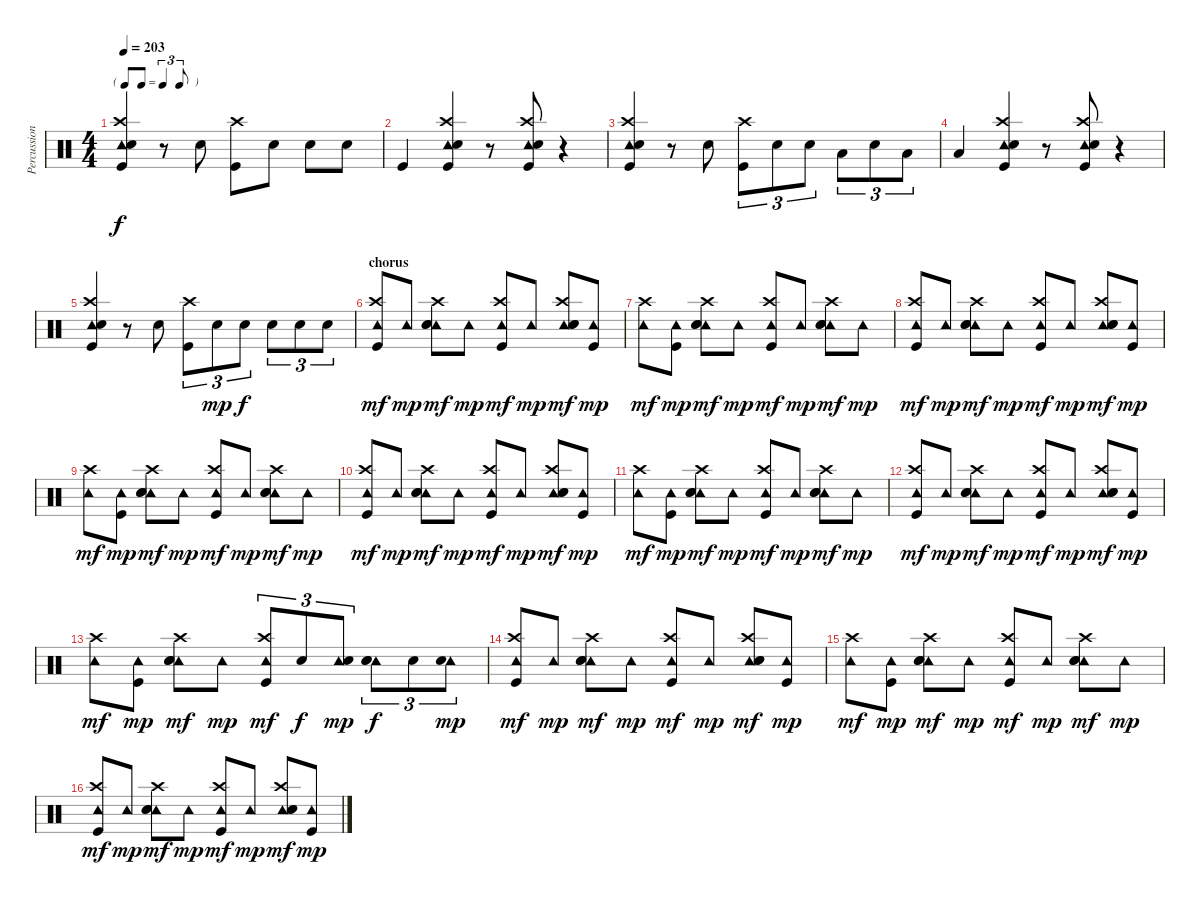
\track ("Percussion" "Percussion") {instrument percussion}
\staff {score}
\articulation defaults
\ts (4 4)
\tf triplet8th
\tempo 203
\clef neutral
\ks c
("Tambourine (hit)" "Crash high (hit)" "Snare (hit) 2" "Kick (hit)").4{dy f} r.8 "Snare (hit) 2".8 ("Crash high (hit)" "Kick (hit)").8 "Snare (hit) 2".8 "Snare (hit) 2".8 "Snare (hit) 2".8 |
"Kick (hit)".4 ("Tambourine (hit)" "Crash high (hit)" "Snare (hit) 2" "Kick (hit)").4 r.8 ("Tambourine (hit)" "Crash high (hit)" "Snare (hit) 2" "Kick (hit)").8 r.4 |
("Tambourine (hit)" "Crash high (hit)" "Snare (hit) 2" "Kick (hit)").4 r.8 "Snare (hit) 2".8 ("Crash high (hit)" "Kick (hit)").8{tu (3 2)} "Snare (hit) 2".8{tu (3 2)} "Snare (hit) 2".8{tu (3 2)} "Low Tom (hit)".8{tu (3 2)} "Snare (hit) 2".8{tu (3 2)} "Low Tom (hit)".8{tu (3 2)} |
"Low Floor Tom (hit)".4 ("Tambourine (hit)" "Crash high (hit)" "Snare (hit) 2" "Kick (hit)").4 r.8 ("Tambourine (hit)" "Crash high (hit)" "Snare (hit) 2" "Kick (hit)").8 r.4 |
("Tambourine (hit)" "Crash high (hit)" "Snare (hit) 2" "Kick (hit)").4 r.8 "Snare (hit) 2".8 ("Crash high (hit)" "Kick (hit)").8{tu (3 2)} "Snare (hit) 2".8{tu (3 2) dy mp} "Snare (hit) 2".8{tu (3 2) dy f} "Snare (hit) 2".8{tu (3 2)} "Snare (hit) 2".8{tu (3 2)} "Snare (hit) 2".8{tu (3 2)} |
\section ("" "chorus")
("Tambourine (hit)" "Crash high (hit)" "Kick (hit)").8{dy mf} "Tambourine (hit)".8{dy mp} ("Tambourine (hit)" "Crash high (hit)" "Hand Clap (hit)" "Snare (hit) 2").8{dy mf} "Tambourine (hit)".8{dy mp} ("Tambourine (hit)" "Crash high (hit)" "Kick (hit)").8{dy mf} "Tambourine (hit)".8{dy mp} ("Tambourine (hit)" "Crash high (hit)" "Hand Clap (hit)" "Snare (hit) 2").8{dy mf} ("Tambourine (hit)" "Kick (hit)").8{dy mp} |
("Tambourine (hit)" "Crash high (hit)").8{dy mf} ("Tambourine (hit)" "Kick (hit)").8{dy mp} ("Tambourine (hit)" "Crash high (hit)" "Hand Clap (hit)" "Snare (hit) 2").8{dy mf} "Tambourine (hit)".8{dy mp} ("Tambourine (hit)" "Crash high (hit)" "Kick (hit)").8{dy mf} "Tambourine (hit)".8{dy mp} ("Tambourine (hit)" "Crash high (hit)" "Hand Clap (hit)" "Snare (hit) 2").8{dy mf} "Tambourine (hit)".8{dy mp} |
("Tambourine (hit)" "Crash high (hit)" "Kick (hit)").8{dy mf} "Tambourine (hit)".8{dy mp} ("Tambourine (hit)" "Crash high (hit)" "Hand Clap (hit)" "Snare (hit) 2").8{dy mf} "Tambourine (hit)".8{dy mp} ("Tambourine (hit)" "Crash high (hit)" "Kick (hit)").8{dy mf} "Tambourine (hit)".8{dy mp} ("Tambourine (hit)" "Crash high (hit)" "Hand Clap (hit)" "Snare (hit) 2").8{dy mf} ("Tambourine (hit)" "Kick (hit)").8{dy mp} |
("Tambourine (hit)" "Crash high (hit)").8{dy mf} ("Tambourine (hit)" "Kick (hit)").8{dy mp} ("Tambourine (hit)" "Crash high (hit)" "Hand Clap (hit)" "Snare (hit) 2").8{dy mf} "Tambourine (hit)".8{dy mp} ("Tambourine (hit)" "Crash high (hit)" "Kick (hit)").8{dy mf} "Tambourine (hit)".8{dy mp} ("Tambourine (hit)" "Crash high (hit)" "Hand Clap (hit)" "Snare (hit) 2").8{dy mf} "Tambourine (hit)".8{dy mp} |
("Tambourine (hit)" "Crash high (hit)" "Kick (hit)").8{dy mf} "Tambourine (hit)".8{dy mp} ("Tambourine (hit)" "Crash high (hit)" "Hand Clap (hit)" "Snare (hit) 2").8{dy mf} "Tambourine (hit)".8{dy mp} ("Tambourine (hit)" "Crash high (hit)" "Kick (hit)").8{dy mf} "Tambourine (hit)".8{dy mp} ("Tambourine (hit)" "Crash high (hit)" "Hand Clap (hit)" "Snare (hit) 2").8{dy mf} ("Tambourine (hit)" "Kick (hit)").8{dy mp} |
("Tambourine (hit)" "Crash high (hit)").8{dy mf} ("Tambourine (hit)" "Kick (hit)").8{dy mp} ("Tambourine (hit)" "Crash high (hit)" "Hand Clap (hit)" "Snare (hit) 2").8{dy mf} "Tambourine (hit)".8{dy mp} ("Tambourine (hit)" "Crash high (hit)" "Kick (hit)").8{dy mf} "Tambourine (hit)".8{dy mp} ("Tambourine (hit)" "Crash high (hit)" "Hand Clap (hit)" "Snare (hit) 2").8{dy mf} "Tambourine (hit)".8{dy mp} |
("Tambourine (hit)" "Crash high (hit)" "Kick (hit)").8{dy mf} "Tambourine (hit)".8{dy mp} ("Tambourine (hit)" "Crash high (hit)" "Hand Clap (hit)" "Snare (hit) 2").8{dy mf} "Tambourine (hit)".8{dy mp} ("Tambourine (hit)" "Crash high (hit)" "Kick (hit)").8{dy mf} "Tambourine (hit)".8{dy mp} ("Tambourine (hit)" "Crash high (hit)" "Hand Clap (hit)" "Snare (hit) 2").8{dy mf} ("Tambourine (hit)" "Kick (hit)").8{dy mp} |
("Tambourine (hit)" "Crash high (hit)").8{dy mf} ("Tambourine (hit)" "Kick (hit)").8{dy mp} ("Tambourine (hit)" "Crash high (hit)" "Hand Clap (hit)" "Snare (hit) 2").8{dy mf} "Tambourine (hit)".8{dy mp} ("Tambourine (hit)" "Crash high (hit)" "Kick (hit)").8{tu (3 2) dy mf} "Snare (hit) 2".8{tu (3 2) dy f} ("Tambourine (hit)" "Snare (hit) 2").8{tu (3 2) dy mp} ("Tambourine (hit)" "Hand Clap (hit)" "Snare (hit) 2").8{tu (3 2) dy f} "Snare (hit) 2".8{tu (3 2)} ("Tambourine (hit)" "Snare (hit) 2").8{tu (3 2) dy mp} |
("Tambourine (hit)" "Crash high (hit)" "Kick (hit)").8{dy mf} "Tambourine (hit)".8{dy mp} ("Tambourine (hit)" "Crash high (hit)" "Hand Clap (hit)" "Snare (hit) 2").8{dy mf} "Tambourine (hit)".8{dy mp} ("Tambourine (hit)" "Crash high (hit)" "Kick (hit)").8{dy mf} "Tambourine (hit)".8{dy mp} ("Tambourine (hit)" "Crash high (hit)" "Hand Clap (hit)" "Snare (hit) 2").8{dy mf} ("Tambourine (hit)" "Kick (hit)").8{dy mp} |
("Tambourine (hit)" "Crash high (hit)").8{dy mf} ("Tambourine (hit)" "Kick (hit)").8{dy mp} ("Tambourine (hit)" "Crash high (hit)" "Hand Clap (hit)" "Snare (hit) 2").8{dy mf} "Tambourine (hit)".8{dy mp} ("Tambourine (hit)" "Crash high (hit)" "Kick (hit)").8{dy mf} "Tambourine (hit)".8{dy mp} ("Tambourine (hit)" "Crash high (hit)" "Hand Clap (hit)" "Snare (hit) 2").8{dy mf} "Tambourine (hit)".8{dy mp} |
("Tambourine (hit)" "Crash high (hit)" "Kick (hit)").8{dy mf} "Tambourine (hit)".8{dy mp} ("Tambourine (hit)" "Crash high (hit)" "Hand Clap (hit)" "Snare (hit) 2").8{dy mf} "Tambourine (hit)".8{dy mp} ("Tambourine (hit)" "Crash high (hit)" "Kick (hit)").8{dy mf} "Tambourine (hit)".8{dy mp} ("Tambourine (hit)" "Crash high (hit)" "Hand Clap (hit)" "Snare (hit) 2").8{dy mf} ("Tambourine (hit)" "Kick (hit)").8{dy mp}
